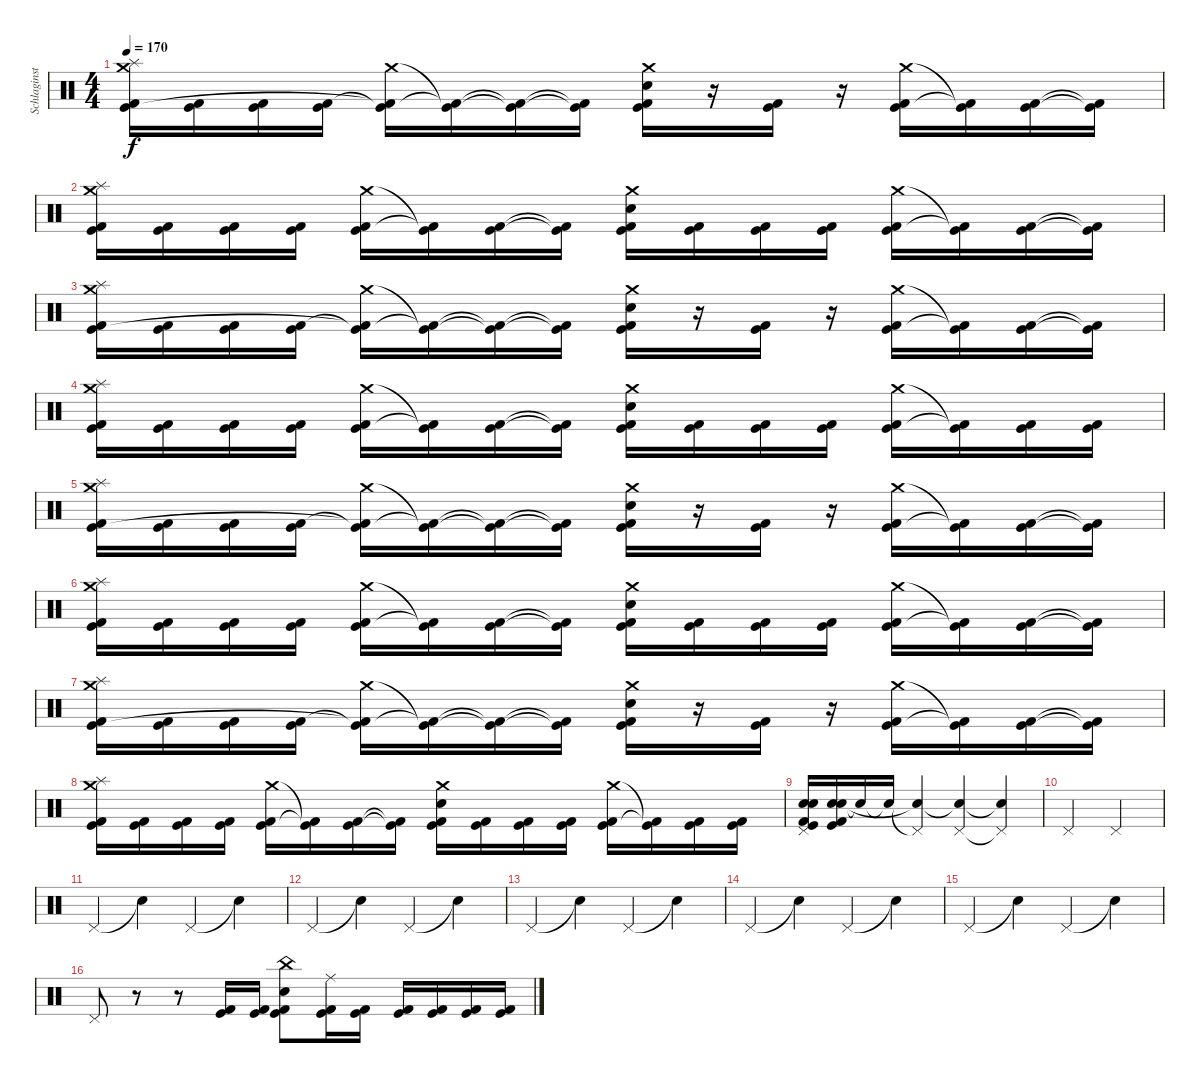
\track ("Schlaginstrumente - Auswahl" "Schlaginst") {instrument percussion}
\staff {score}
\articulation defaults
\ts (4 4)
\tempo 170
\clef neutral
\ks c
("Crash medium (hit)" "Splash (hit)" "Kick (hit)" "Kick (hit) 2").16{dy f} ("Kick (hit)" "Kick (hit) 2").16 ("Kick (hit)" "Kick (hit) 2").16 ("Kick (hit)" "Kick (hit) 2").16 ("Crash medium (hit)" "Kick (hit)"{t} "Kick (hit) 2"{t}).16 ("Kick (hit)"{t} "Kick (hit) 2"{t}).16 ("Kick (hit)"{t} "Kick (hit) 2"{t}).16 ("Kick (hit)"{t} "Kick (hit) 2"{t}).16 ("Crash medium (hit)" "Electric Snare (hit)" "Kick (hit)" "Kick (hit) 2").16 r.16 ("Kick (hit)" "Kick (hit) 2").16 r.16 ("Crash medium (hit)" "Kick (hit)" "Kick (hit) 2").16 ("Kick (hit)"{t} "Kick (hit) 2"{t}).16 ("Kick (hit)" "Kick (hit) 2").16 ("Kick (hit)"{t} "Kick (hit) 2"{t}).16 |
("Crash medium (hit)" "Splash (hit)" "Kick (hit)" "Kick (hit) 2").16 ("Kick (hit)" "Kick (hit) 2").16 ("Kick (hit)" "Kick (hit) 2").16 ("Kick (hit)" "Kick (hit) 2").16 ("Crash medium (hit)" "Kick (hit)" "Kick (hit) 2").16 ("Kick (hit)"{t} "Kick (hit) 2"{t}).16 ("Kick (hit)" "Kick (hit) 2").16 ("Kick (hit)"{t} "Kick (hit) 2"{t}).16 ("Crash medium (hit)" "Electric Snare (hit)" "Kick (hit)" "Kick (hit) 2").16 ("Kick (hit)" "Kick (hit) 2").16 ("Kick (hit)" "Kick (hit) 2").16 ("Kick (hit)" "Kick (hit) 2").16 ("Crash medium (hit)" "Kick (hit)" "Kick (hit) 2").16 ("Kick (hit)"{t} "Kick (hit) 2"{t}).16 ("Kick (hit)" "Kick (hit) 2").16 ("Kick (hit)"{t} "Kick (hit) 2"{t}).16 |
("Crash medium (hit)" "Splash (hit)" "Kick (hit)" "Kick (hit) 2").16 ("Kick (hit)" "Kick (hit) 2").16 ("Kick (hit)" "Kick (hit) 2").16 ("Kick (hit)" "Kick (hit) 2").16 ("Crash medium (hit)" "Kick (hit)"{t} "Kick (hit) 2"{t}).16 ("Kick (hit)"{t} "Kick (hit) 2"{t}).16 ("Kick (hit)"{t} "Kick (hit) 2"{t}).16 ("Kick (hit)"{t} "Kick (hit) 2"{t}).16 ("Crash medium (hit)" "Electric Snare (hit)" "Kick (hit)" "Kick (hit) 2").16 r.16 ("Kick (hit)" "Kick (hit) 2").16 r.16 ("Crash medium (hit)" "Kick (hit)" "Kick (hit) 2").16 ("Kick (hit)"{t} "Kick (hit) 2"{t}).16 ("Kick (hit)" "Kick (hit) 2").16 ("Kick (hit)"{t} "Kick (hit) 2"{t}).16 |
("Crash medium (hit)" "Splash (hit)" "Kick (hit)" "Kick (hit) 2").16 ("Kick (hit)" "Kick (hit) 2").16 ("Kick (hit)" "Kick (hit) 2").16 ("Kick (hit)" "Kick (hit) 2").16 ("Crash medium (hit)" "Kick (hit)" "Kick (hit) 2").16 ("Kick (hit)"{t} "Kick (hit) 2"{t}).16 ("Kick (hit)" "Kick (hit) 2").16 ("Kick (hit)"{t} "Kick (hit) 2"{t}).16 ("Crash medium (hit)" "Electric Snare (hit)" "Kick (hit)" "Kick (hit) 2").16 ("Kick (hit)" "Kick (hit) 2").16 ("Kick (hit)" "Kick (hit) 2").16 ("Kick (hit)" "Kick (hit) 2").16 ("Crash medium (hit)" "Kick (hit)" "Kick (hit) 2").16 ("Kick (hit)"{t} "Kick (hit) 2"{t}).16 ("Kick (hit)" "Kick (hit) 2").16 ("Kick (hit)" "Kick (hit) 2").16 |
("Crash medium (hit)" "Splash (hit)" "Kick (hit)" "Kick (hit) 2").16 ("Kick (hit)" "Kick (hit) 2").16 ("Kick (hit)" "Kick (hit) 2").16 ("Kick (hit)" "Kick (hit) 2").16 ("Crash medium (hit)" "Kick (hit)"{t} "Kick (hit) 2"{t}).16 ("Kick (hit)"{t} "Kick (hit) 2"{t}).16 ("Kick (hit)"{t} "Kick (hit) 2"{t}).16 ("Kick (hit)"{t} "Kick (hit) 2"{t}).16 ("Crash medium (hit)" "Electric Snare (hit)" "Kick (hit)" "Kick (hit) 2").16 r.16 ("Kick (hit)" "Kick (hit) 2").16 r.16 ("Crash medium (hit)" "Kick (hit)" "Kick (hit) 2").16 ("Kick (hit)"{t} "Kick (hit) 2"{t}).16 ("Kick (hit)" "Kick (hit) 2").16 ("Kick (hit)"{t} "Kick (hit) 2"{t}).16 |
("Crash medium (hit)" "Splash (hit)" "Kick (hit)" "Kick (hit) 2").16 ("Kick (hit)" "Kick (hit) 2").16 ("Kick (hit)" "Kick (hit) 2").16 ("Kick (hit)" "Kick (hit) 2").16 ("Crash medium (hit)" "Kick (hit)" "Kick (hit) 2").16 ("Kick (hit)"{t} "Kick (hit) 2"{t}).16 ("Kick (hit)" "Kick (hit) 2").16 ("Kick (hit)"{t} "Kick (hit) 2"{t}).16 ("Crash medium (hit)" "Electric Snare (hit)" "Kick (hit)" "Kick (hit) 2").16 ("Kick (hit)" "Kick (hit) 2").16 ("Kick (hit)" "Kick (hit) 2").16 ("Kick (hit)" "Kick (hit) 2").16 ("Crash medium (hit)" "Kick (hit)" "Kick (hit) 2").16 ("Kick (hit)"{t} "Kick (hit) 2"{t}).16 ("Kick (hit)" "Kick (hit) 2").16 ("Kick (hit)"{t} "Kick (hit) 2"{t}).16 |
("Crash medium (hit)" "Splash (hit)" "Kick (hit)" "Kick (hit) 2").16 ("Kick (hit)" "Kick (hit) 2").16 ("Kick (hit)" "Kick (hit) 2").16 ("Kick (hit)" "Kick (hit) 2").16 ("Crash medium (hit)" "Kick (hit)"{t} "Kick (hit) 2"{t}).16 ("Kick (hit)"{t} "Kick (hit) 2"{t}).16 ("Kick (hit)"{t} "Kick (hit) 2"{t}).16 ("Kick (hit)"{t} "Kick (hit) 2"{t}).16 ("Crash medium (hit)" "Electric Snare (hit)" "Kick (hit)" "Kick (hit) 2").16 r.16 ("Kick (hit)" "Kick (hit) 2").16 r.16 ("Crash medium (hit)" "Kick (hit)" "Kick (hit) 2").16 ("Kick (hit)"{t} "Kick (hit) 2"{t}).16 ("Kick (hit)" "Kick (hit) 2").16 ("Kick (hit)"{t} "Kick (hit) 2"{t}).16 |
("Crash medium (hit)" "Splash (hit)" "Kick (hit)" "Kick (hit) 2").16 ("Kick (hit)" "Kick (hit) 2").16 ("Kick (hit)" "Kick (hit) 2").16 ("Kick (hit)" "Kick (hit) 2").16 ("Crash medium (hit)" "Kick (hit)" "Kick (hit) 2").16 ("Kick (hit)"{t} "Kick (hit) 2"{t}).16 ("Kick (hit)" "Kick (hit) 2").16 ("Kick (hit)"{t} "Kick (hit) 2"{t}).16 ("Crash medium (hit)" "Electric Snare (hit)" "Kick (hit)" "Kick (hit) 2").16 ("Kick (hit)" "Kick (hit) 2").16 ("Kick (hit)" "Kick (hit) 2").16 ("Kick (hit)" "Kick (hit) 2").16 ("Crash medium (hit)" "Kick (hit)" "Kick (hit) 2").16 ("Kick (hit)"{t} "Kick (hit) 2"{t}).16 ("Kick (hit)" "Kick (hit) 2").16 ("Kick (hit)" "Kick (hit) 2").16 |
("Pedal Hi-Hat (hit)" "Electric Snare (hit)" "Electric Snare (hit)" "Kick (hit)" "Kick (hit) 2").16 ("Electric Snare (hit)" "Electric Snare (hit)" "Kick (hit)" "Kick (hit) 2").16 "Snare (hit)"{t}.16 "Snare (hit)"{t}.16 ("Pedal Hi-Hat (hit)"{t} "Snare (hit)"{t}).4 ("Pedal Hi-Hat (hit)" "Snare (hit)"{t}).4 ("Pedal Hi-Hat (hit)"{t} "Snare (hit)"{t}).4 |
"Pedal Hi-Hat (hit)".2 "Pedal Hi-Hat (hit)".2 |
"Pedal Hi-Hat (hit)".4 "Snare (hit)"{t}.4 "Pedal Hi-Hat (hit)".4 "Snare (hit)"{t}.4 |
"Pedal Hi-Hat (hit)".4 "Snare (hit)"{t}.4 "Pedal Hi-Hat (hit)".4 "Snare (hit)"{t}.4 |
"Pedal Hi-Hat (hit)".4 "Snare (hit)"{t}.4 "Pedal Hi-Hat (hit)".4 "Snare (hit)"{t}.4 |
"Pedal Hi-Hat (hit)".4 "Snare (hit)"{t}.4 "Pedal Hi-Hat (hit)".4 "Snare (hit)"{t}.4 |
"Pedal Hi-Hat (hit)".4 "Snare (hit)"{t}.4 "Pedal Hi-Hat (hit)".4 "Snare (hit)"{t}.4 |
"Pedal Hi-Hat (hit)".8 r.8 r.8 ("Kick (hit)" "Kick (hit) 2").16 ("Kick (hit)" "Kick (hit) 2").16 ("China (hit)" "Electric Snare (hit)" "Kick (hit)" "Kick (hit) 2").8 ("Ride (middle)" "Kick (hit)" "Kick (hit) 2").16 ("Kick (hit)" "Kick (hit) 2").16 ("Kick (hit)" "Kick (hit) 2").16 ("Kick (hit)" "Kick (hit) 2").16 ("Kick (hit)" "Kick (hit) 2").16 ("Kick (hit)" "Kick (hit) 2").16
